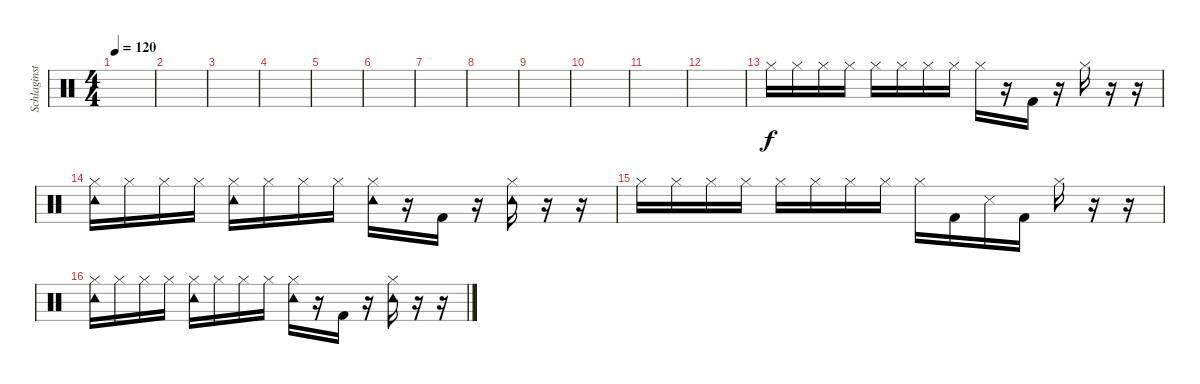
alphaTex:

\track ("Schlaginstrumente - Auswahl" "Schlaginst") {instrument percussion}
\staff {score}
\articulation defaults
\ts (4 4)
\tempo 120
\clef neutral
\ks c
|
|
|
|
|
|
|
|
|
|
|
|
"Hi-Hat (closed)".16 "Hi-Hat (closed)".16 "Hi-Hat (closed)".16 "Hi-Hat (closed)".16 "Hi-Hat (closed)".16 "Hi-Hat (closed)".16 "Hi-Hat (closed)".16 "Hi-Hat (closed)".16 "Hi-Hat (closed)".16 r.16 "Kick (hit) 2".16 r.16 "Hi-Hat (closed)".16 r.16 r.16 |
("Tambourine (hit)" "Hi-Hat (closed)").16 "Hi-Hat (closed)".16 "Hi-Hat (closed)".16 "Hi-Hat (closed)".16 ("Tambourine (hit)" "Hi-Hat (closed)").16 "Hi-Hat (closed)".16 "Hi-Hat (closed)".16 "Hi-Hat (closed)".16 ("Tambourine (hit)" "Hi-Hat (closed)").16 r.16 "Kick (hit) 2".16 r.16 ("Tambourine (hit)" "Hi-Hat (closed)").16 r.16 r.16 |
"Hi-Hat (closed)".16 "Hi-Hat (closed)".16 "Hi-Hat (closed)".16 "Hi-Hat (closed)".16 "Hi-Hat (closed)".16 "Hi-Hat (closed)".16 "Hi-Hat (closed)".16 "Hi-Hat (closed)".16 "Hi-Hat (closed)".16 "Kick (hit) 2".16 "Snare (side stick) 3".16 "Kick (hit) 2".16 "Hi-Hat (closed)".16 r.16 r.16 |
("Tambourine (hit)" "Hi-Hat (closed)").16 "Hi-Hat (closed)".16 "Hi-Hat (closed)".16 "Hi-Hat (closed)".16 ("Tambourine (hit)" "Hi-Hat (closed)").16 "Hi-Hat (closed)".16 "Hi-Hat (closed)".16 "Hi-Hat (closed)".16 ("Tambourine (hit)" "Hi-Hat (closed)").16 r.16 "Kick (hit) 2".16 r.16 ("Tambourine (hit)" "Hi-Hat (closed)").16 r.16 r.16
